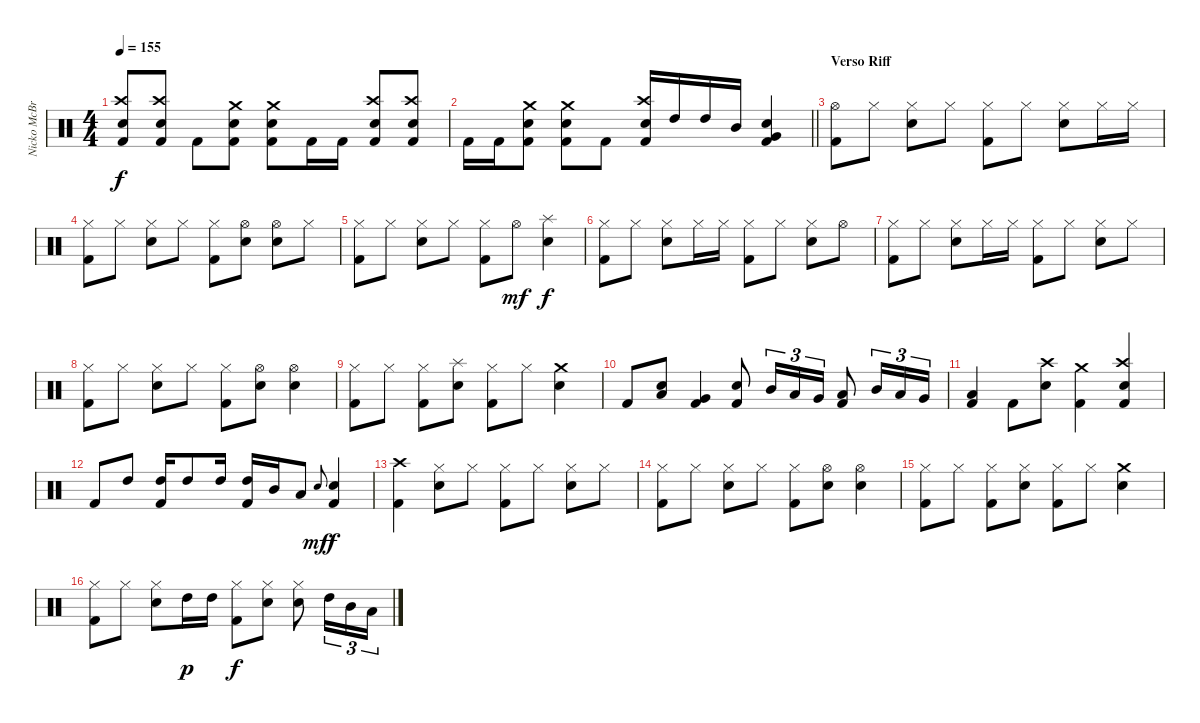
\track ("Nicko McBrain" "Nicko McBr") {instrument percussion}
\staff {score}
\articulation defaults
\ts (4 4)
\tempo 155
\clef neutral
\ks c
("Snare (hit) 2" "Crash high (hit)" "Kick (hit) 2").8{dy f} ("Snare (hit) 2" "Crash high (hit)" "Kick (hit) 2").8 "Kick (hit) 2".8 ("Snare (hit) 2" "Crash medium (hit)" "Kick (hit) 2").8 ("Snare (hit) 2" "Crash medium (hit)" "Kick (hit) 2").8 "Kick (hit) 2".16 "Kick (hit) 2".16 ("Snare (hit) 2" "Crash high (hit)" "Kick (hit) 2").8 ("Snare (hit) 2" "Crash high (hit)" "Kick (hit) 2").8 |
\barLineRight lightlight "Kick (hit) 2".16 "Kick (hit) 2".16
("Snare (hit) 2" "Crash medium (hit)" "Kick (hit) 2").8 ("Snare (hit) 2" "Crash medium (hit)" "Kick (hit) 2").8 "Kick (hit) 2".8 ("Snare (hit) 2" "Crash high (hit)" "Kick (hit) 2").16 "High Tom (hit)".16 "High Tom (hit)".16 "Mid Tom (hit)".16 ("Snare (hit) 2" "Very Low Tom (hit)" "Kick (hit) 2").4 |
\section ("" "Verso Riff")
("Hi-Hat (open)" "Kick (hit) 2").8 "Hi-Hat (closed)".8 ("Hi-Hat (closed)" "Snare (hit) 2").8 "Hi-Hat (closed)".8 ("Hi-Hat (closed)" "Kick (hit) 2").8 "Hi-Hat (closed)".8 ("Hi-Hat (closed)" "Snare (hit) 2").8 "Hi-Hat (closed)".16 "Hi-Hat (closed)".16 |
("Hi-Hat (closed)" "Kick (hit) 2").8 "Hi-Hat (closed)".8 ("Hi-Hat (closed)" "Snare (hit) 2").8 "Hi-Hat (closed)".8 ("Hi-Hat (closed)" "Kick (hit) 2").8 ("Hi-Hat (open)" "Snare (hit) 2").8 ("Hi-Hat (open)" "Snare (hit) 2").8 "Hi-Hat (closed)".8 |
("Hi-Hat (closed)" "Kick (hit) 2").8 "Hi-Hat (closed)".8 ("Hi-Hat (closed)" "Snare (hit) 2").8 "Hi-Hat (closed)".8 ("Hi-Hat (closed)" "Kick (hit) 2").8 "Hi-Hat (open)".8{dy mf} ("Snare (hit) 2" "Splash (hit)").4{dy f} |
("Hi-Hat (closed)" "Kick (hit) 2").8 "Hi-Hat (closed)".8 ("Hi-Hat (closed)" "Snare (hit) 2").8 "Hi-Hat (closed)".16 "Hi-Hat (closed)".16 ("Hi-Hat (closed)" "Kick (hit) 2").8 "Hi-Hat (closed)".8 ("Hi-Hat (closed)" "Snare (hit) 2").8 "Hi-Hat (open)".8 |
("Hi-Hat (closed)" "Kick (hit) 2").8 "Hi-Hat (closed)".8 ("Hi-Hat (closed)" "Snare (hit) 2").8 "Hi-Hat (closed)".16 "Hi-Hat (closed)".16 ("Hi-Hat (closed)" "Kick (hit) 2").8 "Hi-Hat (closed)".8 ("Hi-Hat (closed)" "Snare (hit) 2").8 "Hi-Hat (closed)".8 |
("Hi-Hat (closed)" "Kick (hit) 2").8 "Hi-Hat (closed)".8 ("Hi-Hat (closed)" "Snare (hit) 2").8 "Hi-Hat (closed)".8 ("Hi-Hat (closed)" "Kick (hit) 2").8 ("Hi-Hat (open)" "Snare (hit) 2").8 ("Hi-Hat (open)" "Snare (hit) 2").4 |
("Hi-Hat (closed)" "Kick (hit) 2").8 "Hi-Hat (closed)".8 ("Hi-Hat (closed)" "Kick (hit) 2").8 ("Snare (hit) 2" "Splash (hit)").8 ("Hi-Hat (closed)" "Kick (hit) 2").8 "Hi-Hat (closed)".8 ("Snare (hit) 2" "Crash medium (hit)").4 |
"Kick (hit) 2".8 ("Snare (hit) 2" "Low Tom (hit)").8 ("Very Low Tom (hit)" "Kick (hit) 2").4 ("Snare (hit) 2" "Kick (hit) 2").8 "Mid Tom (hit)".16{tu (3 2)} "Low Tom (hit)".16{tu (3 2)} "Very Low Tom (hit)".16{tu (3 2)} ("Low Floor Tom (hit)" "Kick (hit) 2").8 "Mid Tom (hit)".16{tu (3 2)} "Low Tom (hit)".16{tu (3 2)} "Very Low Tom (hit)".16{tu (3 2)} |
("Low Floor Tom (hit)" "Kick (hit) 2").4 "Kick (hit) 2".8 ("Snare (hit) 2" "Crash high (hit)").8 ("Crash medium (hit)" "Kick (hit) 2").4 ("Snare (hit) 2" "Crash high (hit)" "Kick (hit) 2").4 |
"Kick (hit) 2".8 "High Tom (hit)".8 ("High Tom (hit)" "Kick (hit) 2").16 "High Tom (hit)".8 "High Tom (hit)".16 ("High Tom (hit)" "Kick (hit) 2").16 "Mid Tom (hit)".16 "Low Tom (hit)".8 "Snare (hit) 2".8{gr onbeat dy mf} ("Snare (hit) 2" "Kick (hit) 2").4{dy f} |
("Crash high (hit)" "Kick (hit) 2").4 ("Hi-Hat (closed)" "Snare (hit) 2").8 "Hi-Hat (closed)".8 ("Hi-Hat (closed)" "Kick (hit) 2").8 "Hi-Hat (closed)".8 ("Hi-Hat (closed)" "Snare (hit) 2").8 "Hi-Hat (closed)".8 |
("Hi-Hat (closed)" "Kick (hit) 2").8 "Hi-Hat (closed)".8 ("Hi-Hat (closed)" "Snare (hit) 2").8 "Hi-Hat (closed)".8 ("Hi-Hat (closed)" "Kick (hit) 2").8 ("Hi-Hat (open)" "Snare (hit) 2").8 ("Hi-Hat (open)" "Snare (hit) 2").4 |
("Hi-Hat (closed)" "Kick (hit) 2").8 "Hi-Hat (closed)".8 ("Hi-Hat (closed)" "Kick (hit) 2").8 ("Hi-Hat (closed)" "Snare (hit) 2").8 ("Hi-Hat (closed)" "Kick (hit) 2").8 "Hi-Hat (closed)".8 ("Snare (hit) 2" "Crash medium (hit)").4 |
("Hi-Hat (closed)" "Kick (hit) 2").8 "Hi-Hat (closed)".8 ("Hi-Hat (closed)" "Snare (hit) 2").8 "High Tom (hit)".16{dy p} "High Tom (hit)".16 ("Hi-Hat (closed)" "Kick (hit) 2").8{dy f} ("Hi-Hat (closed)" "Snare (hit) 2").8 ("Hi-Hat (closed)" "Snare (hit) 2").8 "High Tom (hit)".16{tu (3 2)} "Mid Tom (hit)".16{tu (3 2)} "Low Tom (hit)".16{tu (3 2)}
